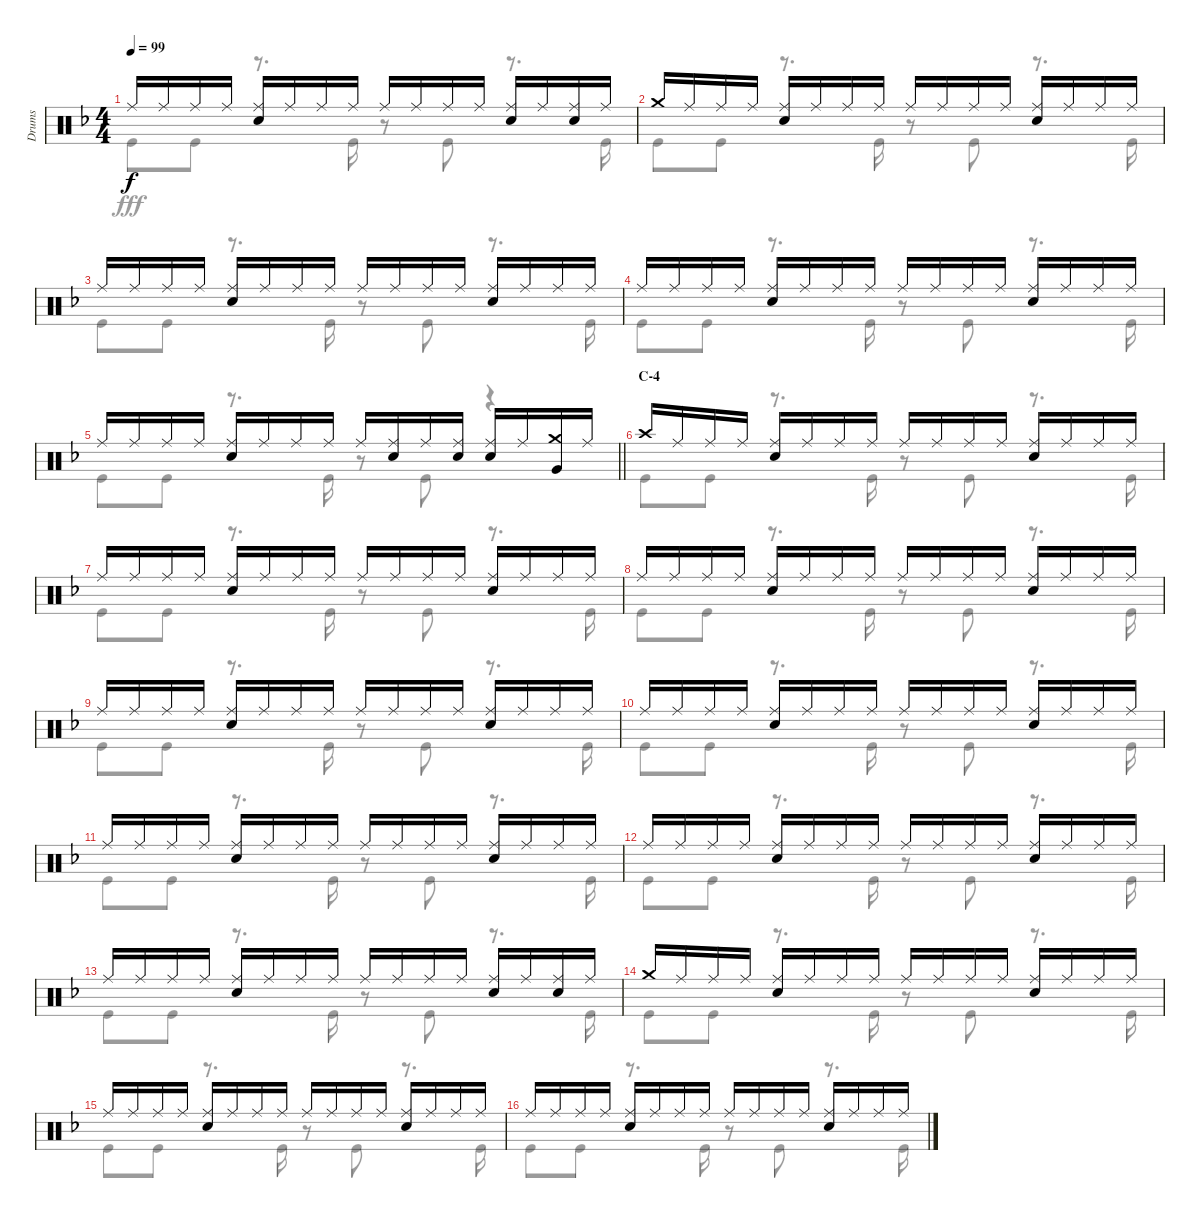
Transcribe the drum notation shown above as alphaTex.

\track ("Drums" "Drums") {instrument percussion}
\staff {score}
\articulation defaults
\voice
\ts (4 4)
\tempo 99
\clef neutral
\ks f "Ride (middle)".16{dy f} "Ride (middle)".16 "Ride (middle)".16 "Ride (middle)".16
("Ride (middle)" "Snare (hit) 2").16 "Ride (middle)".16 "Ride (middle)".16 "Ride (middle)".16 "Ride (middle)".16 "Ride (middle)".16 "Ride (middle)".16 "Ride (middle)".16 ("Ride (middle)" "Snare (hit) 2").16 "Ride (middle)".16 ("Ride (middle)" "Snare (hit) 2").16 "Ride (middle)".16 |
"Crash medium (hit)".16 "Ride (middle)".16 "Ride (middle)".16 "Ride (middle)".16 ("Ride (middle)" "Snare (hit) 2").16 "Ride (middle)".16 "Ride (middle)".16 "Ride (middle)".16 "Ride (middle)".16 "Ride (middle)".16 "Ride (middle)".16 "Ride (middle)".16 ("Ride (middle)" "Snare (hit) 2").16 "Ride (middle)".16 "Ride (middle)".16 "Ride (middle)".16 |
"Ride (middle)".16 "Ride (middle)".16 "Ride (middle)".16 "Ride (middle)".16 ("Ride (middle)" "Snare (hit) 2").16 "Ride (middle)".16 "Ride (middle)".16 "Ride (middle)".16 "Ride (middle)".16 "Ride (middle)".16 "Ride (middle)".16 "Ride (middle)".16 ("Ride (middle)" "Snare (hit) 2").16 "Ride (middle)".16 "Ride (middle)".16 "Ride (middle)".16 |
"Ride (middle)".16 "Ride (middle)".16 "Ride (middle)".16 "Ride (middle)".16 ("Ride (middle)" "Snare (hit) 2").16 "Ride (middle)".16 "Ride (middle)".16 "Ride (middle)".16 "Ride (middle)".16 "Ride (middle)".16 "Ride (middle)".16 "Ride (middle)".16 ("Ride (middle)" "Snare (hit) 2").16 "Ride (middle)".16 "Ride (middle)".16 "Ride (middle)".16 |
\barLineRight lightlight "Ride (middle)".16 "Ride (middle)".16 "Ride (middle)".16 "Ride (middle)".16
("Ride (middle)" "Snare (hit) 2").16 "Ride (middle)".16 "Ride (middle)".16 "Ride (middle)".16 "Ride (middle)".16 ("Ride (middle)" "Snare (hit) 2").16 "Ride (middle)".16 ("Ride (middle)" "Snare (hit) 2").16 ("Ride (middle)" "Snare (hit) 2").16 "Ride (middle)".16 ("Crash medium (hit)" "Very Low Tom (hit)").16 "Ride (middle)".16 |
\section ("" "C-4")
"Crash high (hit)".16 "Ride (middle)".16 "Ride (middle)".16 "Ride (middle)".16 ("Ride (middle)" "Snare (hit) 2").16 "Ride (middle)".16 "Ride (middle)".16 "Ride (middle)".16 "Ride (middle)".16 "Ride (middle)".16 "Ride (middle)".16 "Ride (middle)".16 ("Ride (middle)" "Snare (hit) 2").16 "Ride (middle)".16 "Ride (middle)".16 "Ride (middle)".16 |
"Ride (middle)".16 "Ride (middle)".16 "Ride (middle)".16 "Ride (middle)".16 ("Ride (middle)" "Snare (hit) 2").16 "Ride (middle)".16 "Ride (middle)".16 "Ride (middle)".16 "Ride (middle)".16 "Ride (middle)".16 "Ride (middle)".16 "Ride (middle)".16 ("Ride (middle)" "Snare (hit) 2").16 "Ride (middle)".16 "Ride (middle)".16 "Ride (middle)".16 |
"Ride (middle)".16 "Ride (middle)".16 "Ride (middle)".16 "Ride (middle)".16 ("Ride (middle)" "Snare (hit) 2").16 "Ride (middle)".16 "Ride (middle)".16 "Ride (middle)".16 "Ride (middle)".16 "Ride (middle)".16 "Ride (middle)".16 "Ride (middle)".16 ("Ride (middle)" "Snare (hit) 2").16 "Ride (middle)".16 "Ride (middle)".16 "Ride (middle)".16 |
"Ride (middle)".16 "Ride (middle)".16 "Ride (middle)".16 "Ride (middle)".16 ("Ride (middle)" "Snare (hit) 2").16 "Ride (middle)".16 "Ride (middle)".16 "Ride (middle)".16 "Ride (middle)".16 "Ride (middle)".16 "Ride (middle)".16 "Ride (middle)".16 ("Ride (middle)" "Snare (hit) 2").16 "Ride (middle)".16 "Ride (middle)".16 "Ride (middle)".16 |
"Ride (middle)".16 "Ride (middle)".16 "Ride (middle)".16 "Ride (middle)".16 ("Ride (middle)" "Snare (hit) 2").16 "Ride (middle)".16 "Ride (middle)".16 "Ride (middle)".16 "Ride (middle)".16 "Ride (middle)".16 "Ride (middle)".16 "Ride (middle)".16 ("Ride (middle)" "Snare (hit) 2").16 "Ride (middle)".16 "Ride (middle)".16 "Ride (middle)".16 |
"Ride (middle)".16 "Ride (middle)".16 "Ride (middle)".16 "Ride (middle)".16 ("Ride (middle)" "Snare (hit) 2").16 "Ride (middle)".16 "Ride (middle)".16 "Ride (middle)".16 "Ride (middle)".16 "Ride (middle)".16 "Ride (middle)".16 "Ride (middle)".16 ("Ride (middle)" "Snare (hit) 2").16 "Ride (middle)".16 "Ride (middle)".16 "Ride (middle)".16 |
"Ride (middle)".16 "Ride (middle)".16 "Ride (middle)".16 "Ride (middle)".16 ("Ride (middle)" "Snare (hit) 2").16 "Ride (middle)".16 "Ride (middle)".16 "Ride (middle)".16 "Ride (middle)".16 "Ride (middle)".16 "Ride (middle)".16 "Ride (middle)".16 ("Ride (middle)" "Snare (hit) 2").16 "Ride (middle)".16 "Ride (middle)".16 "Ride (middle)".16 |
"Ride (middle)".16 "Ride (middle)".16 "Ride (middle)".16 "Ride (middle)".16 ("Ride (middle)" "Snare (hit) 2").16 "Ride (middle)".16 "Ride (middle)".16 "Ride (middle)".16 "Ride (middle)".16 "Ride (middle)".16 "Ride (middle)".16 "Ride (middle)".16 ("Ride (middle)" "Snare (hit) 2").16 "Ride (middle)".16 ("Ride (middle)" "Snare (hit) 2").16 "Ride (middle)".16 |
"Crash medium (hit)".16 "Ride (middle)".16 "Ride (middle)".16 "Ride (middle)".16 ("Ride (middle)" "Snare (hit) 2").16 "Ride (middle)".16 "Ride (middle)".16 "Ride (middle)".16 "Ride (middle)".16 "Ride (middle)".16 "Ride (middle)".16 "Ride (middle)".16 ("Ride (middle)" "Snare (hit) 2").16 "Ride (middle)".16 "Ride (middle)".16 "Ride (middle)".16 |
"Ride (middle)".16 "Ride (middle)".16 "Ride (middle)".16 "Ride (middle)".16 ("Ride (middle)" "Snare (hit) 2").16 "Ride (middle)".16 "Ride (middle)".16 "Ride (middle)".16 "Ride (middle)".16 "Ride (middle)".16 "Ride (middle)".16 "Ride (middle)".16 ("Ride (middle)" "Snare (hit) 2").16 "Ride (middle)".16 "Ride (middle)".16 "Ride (middle)".16 |
"Ride (middle)".16 "Ride (middle)".16 "Ride (middle)".16 "Ride (middle)".16 ("Ride (middle)" "Snare (hit) 2").16 "Ride (middle)".16 "Ride (middle)".16 "Ride (middle)".16 "Ride (middle)".16 "Ride (middle)".16 "Ride (middle)".16 "Ride (middle)".16 ("Ride (middle)" "Snare (hit) 2").16 "Ride (middle)".16 "Ride (middle)".16 "Ride (middle)".16
\voice
\clef neutral
\ottava regular
\simile none
\ks f "Kick (hit)".8{dy fff} "Kick (hit)".8
r.8{d} "Kick (hit)".16 r.8 "Kick (hit)".8 r.8{d} "Kick (hit)".16 |
"Kick (hit)".8 "Kick (hit)".8 r.8{d} "Kick (hit)".16 r.8 "Kick (hit)".8 r.8{d} "Kick (hit)".16 |
"Kick (hit)".8 "Kick (hit)".8 r.8{d} "Kick (hit)".16 r.8 "Kick (hit)".8 r.8{d} "Kick (hit)".16 |
"Kick (hit)".8 "Kick (hit)".8 r.8{d} "Kick (hit)".16 r.8 "Kick (hit)".8 r.8{d} "Kick (hit)".16 |
\barLineRight lightlight "Kick (hit)".8 "Kick (hit)".8
r.8{d} "Kick (hit)".16 r.8 "Kick (hit)".8 r.4 |
"Kick (hit)".8 "Kick (hit)".8 r.8{d} "Kick (hit)".16 r.8 "Kick (hit)".8 r.8{d} "Kick (hit)".16 |
"Kick (hit)".8 "Kick (hit)".8 r.8{d} "Kick (hit)".16 r.8 "Kick (hit)".8 r.8{d} "Kick (hit)".16 |
"Kick (hit)".8 "Kick (hit)".8 r.8{d} "Kick (hit)".16 r.8 "Kick (hit)".8 r.8{d} "Kick (hit)".16 |
"Kick (hit)".8 "Kick (hit)".8 r.8{d} "Kick (hit)".16 r.8 "Kick (hit)".8 r.8{d} "Kick (hit)".16 |
"Kick (hit)".8 "Kick (hit)".8 r.8{d} "Kick (hit)".16 r.8 "Kick (hit)".8 r.8{d} "Kick (hit)".16 |
"Kick (hit)".8 "Kick (hit)".8 r.8{d} "Kick (hit)".16 r.8 "Kick (hit)".8 r.8{d} "Kick (hit)".16 |
"Kick (hit)".8 "Kick (hit)".8 r.8{d} "Kick (hit)".16 r.8 "Kick (hit)".8 r.8{d} "Kick (hit)".16 |
"Kick (hit)".8 "Kick (hit)".8 r.8{d} "Kick (hit)".16 r.8 "Kick (hit)".8 r.8{d} "Kick (hit)".16 |
"Kick (hit)".8 "Kick (hit)".8 r.8{d} "Kick (hit)".16 r.8 "Kick (hit)".8 r.8{d} "Kick (hit)".16 |
"Kick (hit)".8 "Kick (hit)".8 r.8{d} "Kick (hit)".16 r.8 "Kick (hit)".8 r.8{d} "Kick (hit)".16 |
"Kick (hit)".8 "Kick (hit)".8 r.8{d} "Kick (hit)".16 r.8 "Kick (hit)".8 r.8{d} "Kick (hit)".16
